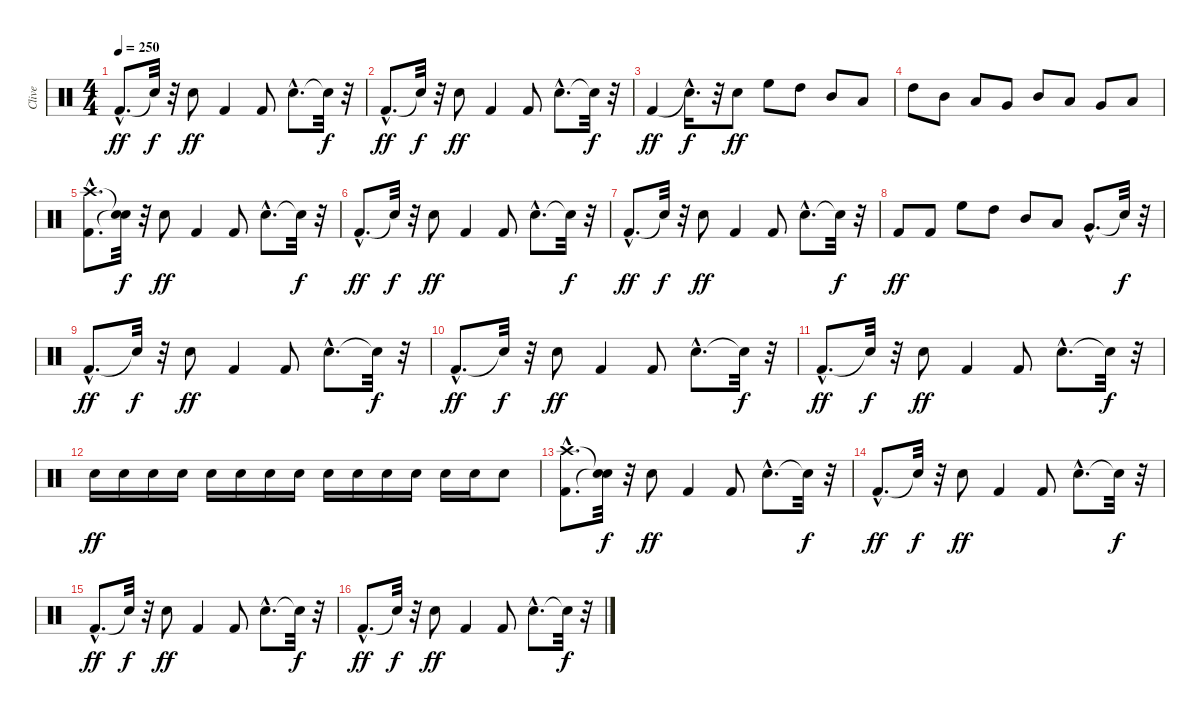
\track ("Clive" "Clive") {instrument percussion}
\staff {score}
\articulation defaults
\ts (4 4)
\tempo 250
\clef neutral
\ks c "Kick (hit) 2"{hac}.8{d dy ff} "Snare (hit)"{t}.32{dy f}
r.32 "Snare (hit) 2".8{dy ff} "Kick (hit) 2".4 "Kick (hit) 2".8 "Snare (hit) 2"{hac}.8{d} "Snare (hit)"{t}.32{dy f} r.32 |
"Kick (hit) 2"{hac}.8{d dy ff} "Snare (hit)"{t}.32{dy f} r.32 "Snare (hit) 2".8{dy ff} "Kick (hit) 2".4 "Kick (hit) 2".8 "Snare (hit) 2"{hac}.8{d} "Snare (hit)"{t}.32{dy f} r.32 |
"Kick (hit) 2".4{dy ff} "Snare (hit)"{hac t}.16{d dy f} r.32 "Snare (hit) 2".8{dy ff} "High Floor Tom (hit)".8 "High Tom (hit)".8 "Mid Tom (hit)".8 "Low Tom (hit)".8 |
"High Tom (hit)".8 "Mid Tom (hit)".8 "Low Tom (hit)".8 "Very Low Tom (hit)".8 "Mid Tom (hit)".8 "Low Tom (hit)".8 "Very Low Tom (hit)".8 "Low Floor Tom (hit)".8 |
("Kick (hit) 2"{hac} "Crash high (hit)"{hac}).8{d} ("Snare (hit)"{t} "Snare (hit)"{t}).32{dy f} r.32 "Snare (hit) 2".8{dy ff} "Kick (hit) 2".4 "Kick (hit) 2".8 "Snare (hit) 2"{hac}.8{d} "Snare (hit)"{t}.32{dy f} r.32 |
"Kick (hit) 2"{hac}.8{d dy ff} "Snare (hit)"{t}.32{dy f} r.32 "Snare (hit) 2".8{dy ff} "Kick (hit) 2".4 "Kick (hit) 2".8 "Snare (hit) 2"{hac}.8{d} "Snare (hit)"{t}.32{dy f} r.32 |
"Kick (hit) 2"{hac}.8{d dy ff} "Snare (hit)"{t}.32{dy f} r.32 "Snare (hit) 2".8{dy ff} "Kick (hit) 2".4 "Kick (hit) 2".8 "Snare (hit) 2"{hac}.8{d} "Snare (hit)"{t}.32{dy f} r.32 |
"Kick (hit) 2".8{dy ff} "Kick (hit) 2".8 "High Floor Tom (hit)".8 "High Tom (hit)".8 "Mid Tom (hit)".8 "Low Tom (hit)".8 "Very Low Tom (hit)"{hac}.8{d} "Snare (hit)"{t}.32{dy f} r.32 |
"Kick (hit) 2"{hac}.8{d dy ff} "Snare (hit)"{t}.32{dy f} r.32 "Snare (hit) 2".8{dy ff} "Kick (hit) 2".4 "Kick (hit) 2".8 "Snare (hit) 2"{hac}.8{d} "Snare (hit)"{t}.32{dy f} r.32 |
"Kick (hit) 2"{hac}.8{d dy ff} "Snare (hit)"{t}.32{dy f} r.32 "Snare (hit) 2".8{dy ff} "Kick (hit) 2".4 "Kick (hit) 2".8 "Snare (hit) 2"{hac}.8{d} "Snare (hit)"{t}.32{dy f} r.32 |
"Kick (hit) 2"{hac}.8{d dy ff} "Snare (hit)"{t}.32{dy f} r.32 "Snare (hit) 2".8{dy ff} "Kick (hit) 2".4 "Kick (hit) 2".8 "Snare (hit) 2"{hac}.8{d} "Snare (hit)"{t}.32{dy f} r.32 |
"Snare (hit) 2".16{dy ff} "Snare (hit) 2".16 "Snare (hit) 2".16 "Snare (hit) 2".16 "Snare (hit) 2".16 "Snare (hit) 2".16 "Snare (hit) 2".16 "Snare (hit) 2".16 "Snare (hit) 2".16 "Snare (hit) 2".16 "Snare (hit) 2".16 "Snare (hit) 2".16 "Snare (hit) 2".16 "Snare (hit) 2".16 "Snare (hit) 2".8 |
("Kick (hit) 2"{hac} "Crash high (hit)"{hac}).8{d} ("Snare (hit)"{t} "Snare (hit)"{t}).32{dy f} r.32 "Snare (hit) 2".8{dy ff} "Kick (hit) 2".4 "Kick (hit) 2".8 "Snare (hit) 2"{hac}.8{d} "Snare (hit)"{t}.32{dy f} r.32 |
"Kick (hit) 2"{hac}.8{d dy ff} "Snare (hit)"{t}.32{dy f} r.32 "Snare (hit) 2".8{dy ff} "Kick (hit) 2".4 "Kick (hit) 2".8 "Snare (hit) 2"{hac}.8{d} "Snare (hit)"{t}.32{dy f} r.32 |
"Kick (hit) 2"{hac}.8{d dy ff} "Snare (hit)"{t}.32{dy f} r.32 "Snare (hit) 2".8{dy ff} "Kick (hit) 2".4 "Kick (hit) 2".8 "Snare (hit) 2"{hac}.8{d} "Snare (hit)"{t}.32{dy f} r.32 |
"Kick (hit) 2"{hac}.8{d dy ff} "Snare (hit)"{t}.32{dy f} r.32 "Snare (hit) 2".8{dy ff} "Kick (hit) 2".4 "Kick (hit) 2".8 "Snare (hit) 2"{hac}.8{d} "Snare (hit)"{t}.32{dy f} r.32
